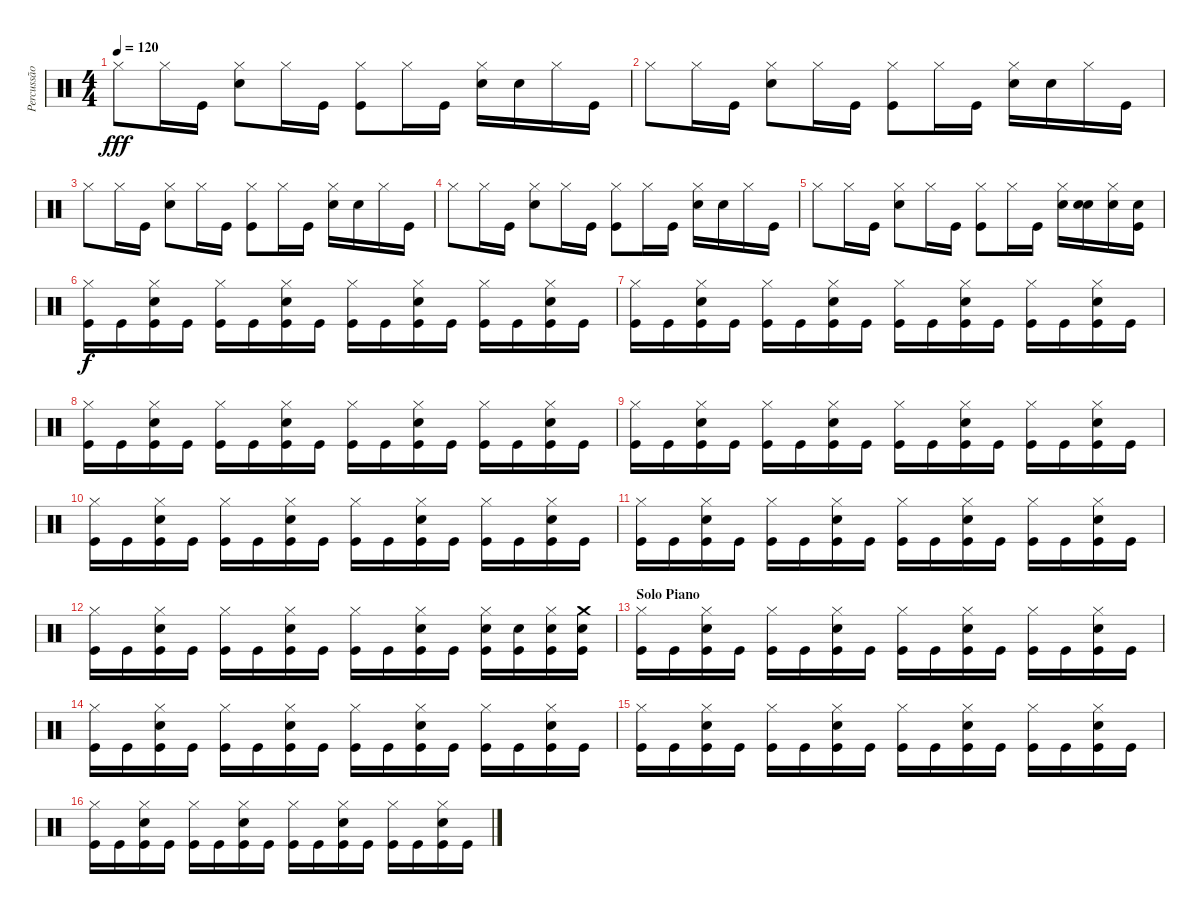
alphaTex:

\track ("Percussão" "Percussão") {instrument percussion}
\staff {score}
\articulation defaults
\ts (4 4)
\tempo 120
\clef neutral
\ks c "Hi-Hat (closed)".8{dy fff} "Hi-Hat (closed)".16 "Kick (hit)".16
("Hi-Hat (closed)" "Snare (hit) 2").8 "Hi-Hat (closed)".16 "Kick (hit)".16 ("Hi-Hat (closed)" "Kick (hit)").8 "Hi-Hat (closed)".16 "Kick (hit)".16 ("Hi-Hat (closed)" "Snare (hit) 2").16 "Snare (hit) 2".16 "Hi-Hat (closed)".16 "Kick (hit)".16 |
"Hi-Hat (closed)".8 "Hi-Hat (closed)".16 "Kick (hit)".16 ("Hi-Hat (closed)" "Snare (hit) 2").8 "Hi-Hat (closed)".16 "Kick (hit)".16 ("Hi-Hat (closed)" "Kick (hit)").8 "Hi-Hat (closed)".16 "Kick (hit)".16 ("Hi-Hat (closed)" "Snare (hit) 2").16 "Snare (hit) 2".16 "Hi-Hat (closed)".16 "Kick (hit)".16 |
"Hi-Hat (closed)".8 "Hi-Hat (closed)".16 "Kick (hit)".16 ("Hi-Hat (closed)" "Snare (hit) 2").8 "Hi-Hat (closed)".16 "Kick (hit)".16 ("Hi-Hat (closed)" "Kick (hit)").8 "Hi-Hat (closed)".16 "Kick (hit)".16 ("Hi-Hat (closed)" "Snare (hit) 2").16 "Snare (hit) 2".16 "Hi-Hat (closed)".16 "Kick (hit)".16 |
"Hi-Hat (closed)".8 "Hi-Hat (closed)".16 "Kick (hit)".16 ("Hi-Hat (closed)" "Snare (hit) 2").8 "Hi-Hat (closed)".16 "Kick (hit)".16 ("Hi-Hat (closed)" "Kick (hit)").8 "Hi-Hat (closed)".16 "Kick (hit)".16 ("Hi-Hat (closed)" "Snare (hit) 2").16 "Snare (hit) 2".16 "Hi-Hat (closed)".16 "Kick (hit)".16 |
"Hi-Hat (closed)".8 "Hi-Hat (closed)".16 "Kick (hit)".16 ("Hi-Hat (closed)" "Snare (hit) 2").8 "Hi-Hat (closed)".16 "Kick (hit)".16 ("Hi-Hat (closed)" "Kick (hit)").8 "Hi-Hat (closed)".16 "Kick (hit)".16 ("Hi-Hat (closed)" "Snare (hit) 2").16 ("Snare (hit) 2" "Snare (hit) 2").16 ("Hi-Hat (closed)" "Snare (hit) 2").16 ("Kick (hit)" "Snare (hit) 2").16 |
("Kick (hit)" "Hi-Hat (closed)").16{dy f} "Kick (hit)".16 ("Kick (hit)" "Hi-Hat (closed)" "Snare (hit) 2").16 "Kick (hit)".16 ("Kick (hit)" "Hi-Hat (closed)").16 "Kick (hit)".16 ("Kick (hit)" "Hi-Hat (closed)" "Snare (hit) 2").16 "Kick (hit)".16 ("Kick (hit)" "Hi-Hat (closed)").16 "Kick (hit)".16 ("Kick (hit)" "Hi-Hat (closed)" "Snare (hit) 2").16 "Kick (hit)".16 ("Kick (hit)" "Hi-Hat (closed)").16 "Kick (hit)".16 ("Kick (hit)" "Hi-Hat (closed)" "Snare (hit) 2").16 "Kick (hit)".16 |
("Kick (hit)" "Hi-Hat (closed)").16 "Kick (hit)".16 ("Kick (hit)" "Hi-Hat (closed)" "Snare (hit) 2").16 "Kick (hit)".16 ("Kick (hit)" "Hi-Hat (closed)").16 "Kick (hit)".16 ("Kick (hit)" "Hi-Hat (closed)" "Snare (hit) 2").16 "Kick (hit)".16 ("Kick (hit)" "Hi-Hat (closed)").16 "Kick (hit)".16 ("Kick (hit)" "Hi-Hat (closed)" "Snare (hit) 2").16 "Kick (hit)".16 ("Kick (hit)" "Hi-Hat (closed)").16 "Kick (hit)".16 ("Kick (hit)" "Hi-Hat (closed)" "Snare (hit) 2").16 "Kick (hit)".16 |
("Kick (hit)" "Hi-Hat (closed)").16 "Kick (hit)".16 ("Kick (hit)" "Hi-Hat (closed)" "Snare (hit) 2").16 "Kick (hit)".16 ("Kick (hit)" "Hi-Hat (closed)").16 "Kick (hit)".16 ("Kick (hit)" "Hi-Hat (closed)" "Snare (hit) 2").16 "Kick (hit)".16 ("Kick (hit)" "Hi-Hat (closed)").16 "Kick (hit)".16 ("Kick (hit)" "Hi-Hat (closed)" "Snare (hit) 2").16 "Kick (hit)".16 ("Kick (hit)" "Hi-Hat (closed)").16 "Kick (hit)".16 ("Kick (hit)" "Hi-Hat (closed)" "Snare (hit) 2").16 "Kick (hit)".16 |
("Kick (hit)" "Hi-Hat (closed)").16 "Kick (hit)".16 ("Kick (hit)" "Hi-Hat (closed)" "Snare (hit) 2").16 "Kick (hit)".16 ("Kick (hit)" "Hi-Hat (closed)").16 "Kick (hit)".16 ("Kick (hit)" "Hi-Hat (closed)" "Snare (hit) 2").16 "Kick (hit)".16 ("Kick (hit)" "Hi-Hat (closed)").16 "Kick (hit)".16 ("Kick (hit)" "Hi-Hat (closed)" "Snare (hit) 2").16 "Kick (hit)".16 ("Kick (hit)" "Hi-Hat (closed)").16 "Kick (hit)".16 ("Kick (hit)" "Hi-Hat (closed)" "Snare (hit) 2").16 "Kick (hit)".16 |
("Kick (hit)" "Hi-Hat (closed)").16 "Kick (hit)".16 ("Kick (hit)" "Hi-Hat (closed)" "Snare (hit) 2").16 "Kick (hit)".16 ("Kick (hit)" "Hi-Hat (closed)").16 "Kick (hit)".16 ("Kick (hit)" "Hi-Hat (closed)" "Snare (hit) 2").16 "Kick (hit)".16 ("Kick (hit)" "Hi-Hat (closed)").16 "Kick (hit)".16 ("Kick (hit)" "Hi-Hat (closed)" "Snare (hit) 2").16 "Kick (hit)".16 ("Kick (hit)" "Hi-Hat (closed)").16 "Kick (hit)".16 ("Kick (hit)" "Hi-Hat (closed)" "Snare (hit) 2").16 "Kick (hit)".16 |
("Kick (hit)" "Hi-Hat (closed)").16 "Kick (hit)".16 ("Kick (hit)" "Hi-Hat (closed)" "Snare (hit) 2").16 "Kick (hit)".16 ("Kick (hit)" "Hi-Hat (closed)").16 "Kick (hit)".16 ("Kick (hit)" "Hi-Hat (closed)" "Snare (hit) 2").16 "Kick (hit)".16 ("Kick (hit)" "Hi-Hat (closed)").16 "Kick (hit)".16 ("Kick (hit)" "Hi-Hat (closed)" "Snare (hit) 2").16 "Kick (hit)".16 ("Kick (hit)" "Hi-Hat (closed)").16 "Kick (hit)".16 ("Kick (hit)" "Hi-Hat (closed)" "Snare (hit) 2").16 "Kick (hit)".16 |
("Kick (hit)" "Hi-Hat (closed)").16 "Kick (hit)".16 ("Kick (hit)" "Hi-Hat (closed)" "Snare (hit) 2").16 "Kick (hit)".16 ("Kick (hit)" "Hi-Hat (closed)").16 "Kick (hit)".16 ("Kick (hit)" "Hi-Hat (closed)" "Snare (hit) 2").16 "Kick (hit)".16 ("Kick (hit)" "Hi-Hat (closed)").16 "Kick (hit)".16 ("Kick (hit)" "Hi-Hat (closed)" "Snare (hit) 2").16 "Kick (hit)".16 ("Kick (hit)" "Hi-Hat (closed)" "Snare (hit) 2").16 ("Kick (hit)" "Snare (hit) 2").16 ("Kick (hit)" "Hi-Hat (closed)" "Snare (hit) 2").16 ("Kick (hit)" "Crash medium (hit)" "Snare (hit) 2").16 |
\section ("" "Solo Piano")
("Kick (hit)" "Hi-Hat (closed)").16 "Kick (hit)".16 ("Kick (hit)" "Hi-Hat (closed)" "Snare (hit) 2").16 "Kick (hit)".16 ("Kick (hit)" "Hi-Hat (closed)").16 "Kick (hit)".16 ("Kick (hit)" "Hi-Hat (closed)" "Snare (hit) 2").16 "Kick (hit)".16 ("Kick (hit)" "Hi-Hat (closed)").16 "Kick (hit)".16 ("Kick (hit)" "Hi-Hat (closed)" "Snare (hit) 2").16 "Kick (hit)".16 ("Kick (hit)" "Hi-Hat (closed)").16 "Kick (hit)".16 ("Kick (hit)" "Hi-Hat (closed)" "Snare (hit) 2").16 "Kick (hit)".16 |
("Kick (hit)" "Hi-Hat (closed)").16 "Kick (hit)".16 ("Kick (hit)" "Hi-Hat (closed)" "Snare (hit) 2").16 "Kick (hit)".16 ("Kick (hit)" "Hi-Hat (closed)").16 "Kick (hit)".16 ("Kick (hit)" "Hi-Hat (closed)" "Snare (hit) 2").16 "Kick (hit)".16 ("Kick (hit)" "Hi-Hat (closed)").16 "Kick (hit)".16 ("Kick (hit)" "Hi-Hat (closed)" "Snare (hit) 2").16 "Kick (hit)".16 ("Kick (hit)" "Hi-Hat (closed)").16 "Kick (hit)".16 ("Kick (hit)" "Hi-Hat (closed)" "Snare (hit) 2").16 "Kick (hit)".16 |
("Kick (hit)" "Hi-Hat (closed)").16 "Kick (hit)".16 ("Kick (hit)" "Hi-Hat (closed)" "Snare (hit) 2").16 "Kick (hit)".16 ("Kick (hit)" "Hi-Hat (closed)").16 "Kick (hit)".16 ("Kick (hit)" "Hi-Hat (closed)" "Snare (hit) 2").16 "Kick (hit)".16 ("Kick (hit)" "Hi-Hat (closed)").16 "Kick (hit)".16 ("Kick (hit)" "Hi-Hat (closed)" "Snare (hit) 2").16 "Kick (hit)".16 ("Kick (hit)" "Hi-Hat (closed)").16 "Kick (hit)".16 ("Kick (hit)" "Hi-Hat (closed)" "Snare (hit) 2").16 "Kick (hit)".16 |
("Kick (hit)" "Hi-Hat (closed)").16 "Kick (hit)".16 ("Kick (hit)" "Hi-Hat (closed)" "Snare (hit) 2").16 "Kick (hit)".16 ("Kick (hit)" "Hi-Hat (closed)").16 "Kick (hit)".16 ("Kick (hit)" "Hi-Hat (closed)" "Snare (hit) 2").16 "Kick (hit)".16 ("Kick (hit)" "Hi-Hat (closed)").16 "Kick (hit)".16 ("Kick (hit)" "Hi-Hat (closed)" "Snare (hit) 2").16 "Kick (hit)".16 ("Kick (hit)" "Hi-Hat (closed)").16 "Kick (hit)".16 ("Kick (hit)" "Hi-Hat (closed)" "Snare (hit) 2").16 "Kick (hit)".16
